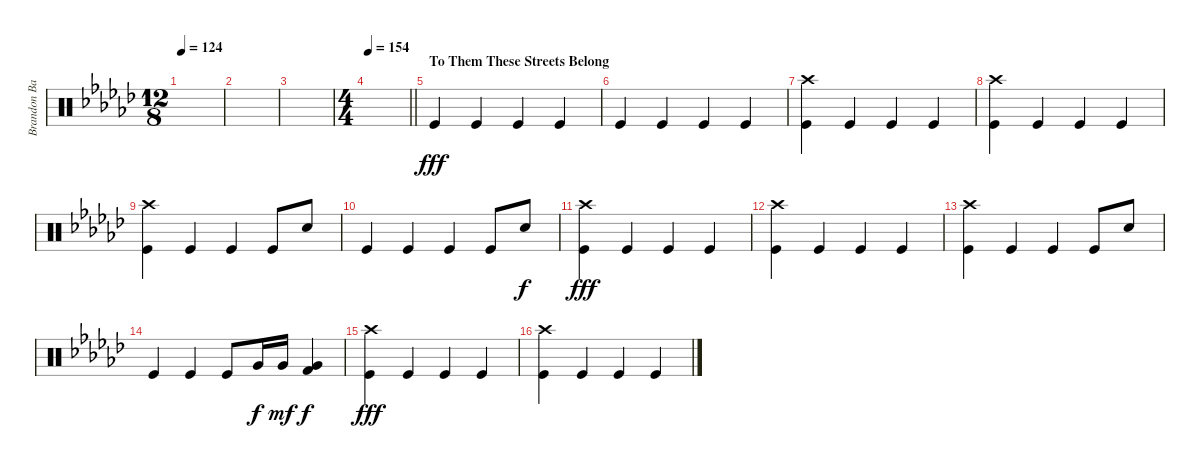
\track ("Brandon Barnes - Drums" "Brandon Ba") {instrument percussion}
\staff {score}
\articulation defaults
\ts (12 8)
\tempo 124
\clef neutral
\ks gb
|
|
|
\ts (4 4)
\tempo 154
\barLineRight lightlight
|
\section ("" "To Them These Streets Belong")
"Kick (hit)".4{dy fff} "Kick (hit)".4 "Kick (hit)".4 "Kick (hit)".4 |
"Kick (hit)".4 "Kick (hit)".4 "Kick (hit)".4 "Kick (hit)".4 |
("Kick (hit)" "Crash high (hit)").4 "Kick (hit)".4 "Kick (hit)".4 "Kick (hit)".4 |
("Kick (hit)" "Crash high (hit)").4 "Kick (hit)".4 "Kick (hit)".4 "Kick (hit)".4 |
("Kick (hit)" "Crash high (hit)").4 "Kick (hit)".4 "Kick (hit)".4 "Kick (hit)".8 "Snare (hit) 2".8 |
"Kick (hit)".4 "Kick (hit)".4 "Kick (hit)".4 "Kick (hit)".8 "Electric Snare (hit)".8{dy f} |
("Kick (hit)" "Crash high (hit)").4{dy fff} "Kick (hit)".4 "Kick (hit)".4 "Kick (hit)".4 |
("Kick (hit)" "Crash high (hit)").4 "Kick (hit)".4 "Kick (hit)".4 "Kick (hit)".4 |
("Kick (hit)" "Crash high (hit)").4 "Kick (hit)".4 "Kick (hit)".4 "Kick (hit)".8 "Snare (hit) 2".8 |
"Kick (hit)".4 "Kick (hit)".4 "Kick (hit)".8 "Very Low Tom (hit)".16{dy f} "Very Low Tom (hit)".16{dy mf} ("Very Low Tom (hit)" "Kick (hit) 2").4{dy f} |
("Kick (hit)" "Crash high (hit)").4{dy fff} "Kick (hit)".4 "Kick (hit)".4 "Kick (hit)".4 |
("Kick (hit)" "Crash high (hit)").4 "Kick (hit)".4 "Kick (hit)".4 "Kick (hit)".4
